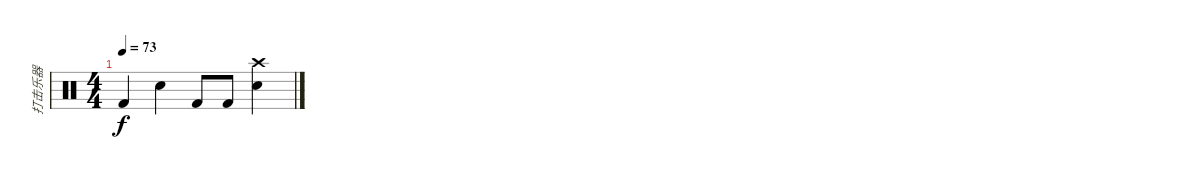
\track ("打击乐器" "打击乐器") {instrument percussion}
\staff {score}
\articulation defaults
\ts (4 4)
\tempo 73
\clef neutral
\ks c "Kick (hit) 2".4{dy f} "Snare (hit) 2".4 "Kick (hit) 2".8 "Kick (hit) 2".8
("Snare (hit) 2" "Crash high (hit)").4
